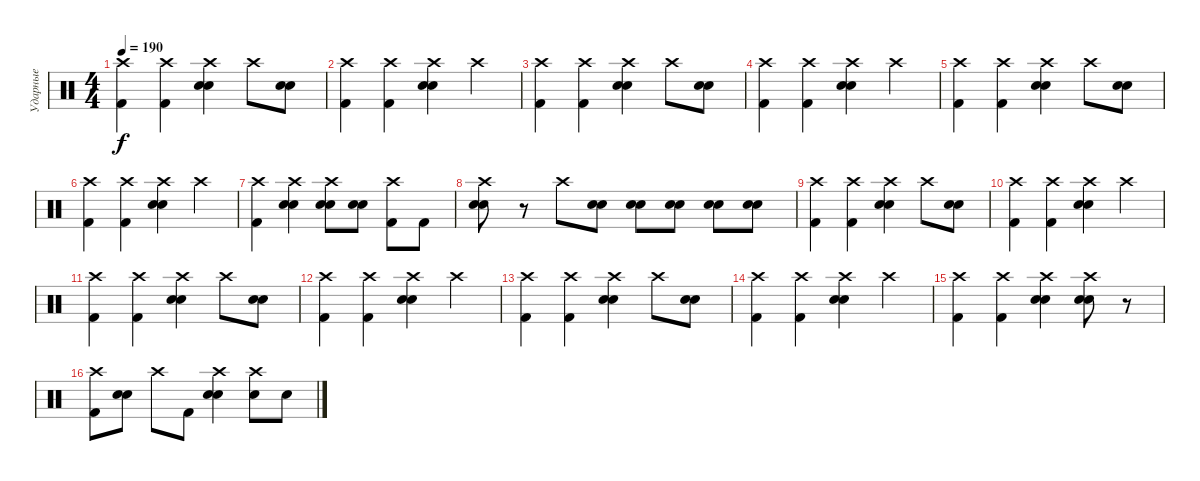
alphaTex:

\track ("Ударные" "Ударные") {instrument percussion}
\staff {score}
\articulation defaults
\ts (4 4)
\tempo 190
\clef neutral
\ks c
("Crash high (hit)" "Kick (hit) 2").4{dy f} ("Crash high (hit)" "Kick (hit) 2").4 ("Crash high (hit)" "Electric Snare (hit)" "Snare (hit) 2").4 "Crash high (hit)".8 ("Electric Snare (hit)" "Snare (hit) 2").8 |
("Crash high (hit)" "Kick (hit) 2").4 ("Crash high (hit)" "Kick (hit) 2").4 ("Crash high (hit)" "Electric Snare (hit)" "Snare (hit) 2").4 "Crash high (hit)".4 |
("Crash high (hit)" "Kick (hit) 2").4 ("Crash high (hit)" "Kick (hit) 2").4 ("Crash high (hit)" "Electric Snare (hit)" "Snare (hit) 2").4 "Crash high (hit)".8 ("Electric Snare (hit)" "Snare (hit) 2").8 |
("Crash high (hit)" "Kick (hit) 2").4 ("Crash high (hit)" "Kick (hit) 2").4 ("Crash high (hit)" "Electric Snare (hit)" "Snare (hit) 2").4 "Crash high (hit)".4 |
("Crash high (hit)" "Kick (hit) 2").4 ("Crash high (hit)" "Kick (hit) 2").4 ("Crash high (hit)" "Electric Snare (hit)" "Snare (hit) 2").4 "Crash high (hit)".8 ("Electric Snare (hit)" "Snare (hit) 2").8 |
("Crash high (hit)" "Kick (hit) 2").4 ("Crash high (hit)" "Kick (hit) 2").4 ("Crash high (hit)" "Electric Snare (hit)" "Snare (hit) 2").4 "Crash high (hit)".4 |
("Crash high (hit)" "Kick (hit) 2").4 ("Crash high (hit)" "Electric Snare (hit)" "Snare (hit) 2").4 ("Crash high (hit)" "Electric Snare (hit)" "Snare (hit) 2").8 ("Electric Snare (hit)" "Snare (hit) 2").8 ("Crash high (hit)" "Kick (hit) 2").8 "Kick (hit) 2".8 |
("Crash high (hit)" "Electric Snare (hit)" "Snare (hit) 2").8 r.8 "Crash high (hit)".8 ("Electric Snare (hit)" "Snare (hit) 2").8 ("Electric Snare (hit)" "Snare (hit) 2").8 ("Electric Snare (hit)" "Snare (hit) 2").8 ("Electric Snare (hit)" "Snare (hit) 2").8 ("Electric Snare (hit)" "Snare (hit) 2").8 |
("Crash high (hit)" "Kick (hit) 2").4 ("Crash high (hit)" "Kick (hit) 2").4 ("Crash high (hit)" "Electric Snare (hit)" "Snare (hit) 2").4 "Crash high (hit)".8 ("Electric Snare (hit)" "Snare (hit) 2").8 |
("Crash high (hit)" "Kick (hit) 2").4 ("Crash high (hit)" "Kick (hit) 2").4 ("Crash high (hit)" "Electric Snare (hit)" "Snare (hit) 2").4 "Crash high (hit)".4 |
("Crash high (hit)" "Kick (hit) 2").4 ("Crash high (hit)" "Kick (hit) 2").4 ("Crash high (hit)" "Electric Snare (hit)" "Snare (hit) 2").4 "Crash high (hit)".8 ("Electric Snare (hit)" "Snare (hit) 2").8 |
("Crash high (hit)" "Kick (hit) 2").4 ("Crash high (hit)" "Kick (hit) 2").4 ("Crash high (hit)" "Electric Snare (hit)" "Snare (hit) 2").4 "Crash high (hit)".4 |
("Crash high (hit)" "Kick (hit) 2").4 ("Crash high (hit)" "Kick (hit) 2").4 ("Crash high (hit)" "Electric Snare (hit)" "Snare (hit) 2").4 "Crash high (hit)".8 ("Electric Snare (hit)" "Snare (hit) 2").8 |
("Crash high (hit)" "Kick (hit) 2").4 ("Crash high (hit)" "Kick (hit) 2").4 ("Crash high (hit)" "Electric Snare (hit)" "Snare (hit) 2").4 "Crash high (hit)".4 |
("Crash high (hit)" "Kick (hit) 2").4 ("Crash high (hit)" "Kick (hit) 2").4 ("Crash high (hit)" "Electric Snare (hit)" "Snare (hit) 2").4 ("Crash high (hit)" "Electric Snare (hit)" "Snare (hit) 2").8 r.8 |
("Crash high (hit)" "Kick (hit) 2").8 ("Electric Snare (hit)" "Snare (hit) 2").8 "Crash high (hit)".8 "Kick (hit) 2".8 ("Crash high (hit)" "Electric Snare (hit)" "Snare (hit) 2").4 ("Crash high (hit)" "Electric Snare (hit)").8 "Electric Snare (hit)".8
